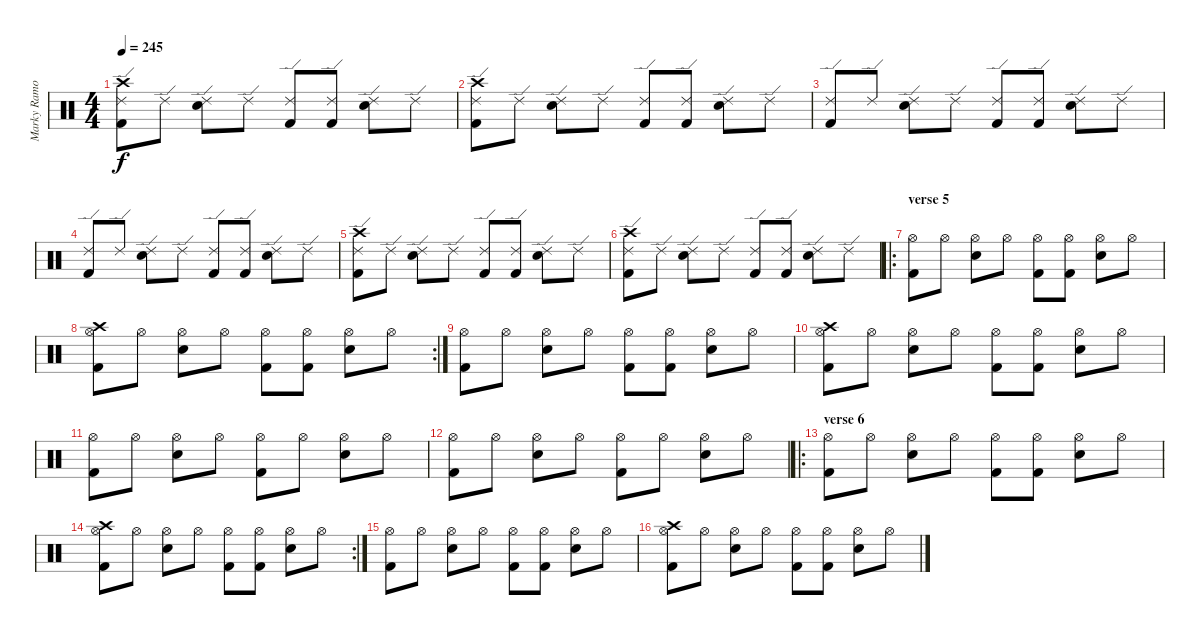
\track ("Marky Ramone" "Marky Ramo") {instrument percussion}
\staff {score}
\articulation defaults
\ts (4 4)
\tempo 245
\clef neutral
\ks c
("Crash high (hit)" "Kick (hit) 2" "Ride (edge) 2").8{dy f} "Ride (edge) 2".8 ("Electric Snare (hit)" "Ride (edge) 2").8 "Ride (edge) 2".8 ("Kick (hit) 2" "Ride (edge) 2").8 ("Kick (hit) 2" "Ride (edge) 2").8 ("Electric Snare (hit)" "Ride (edge) 2").8 "Ride (edge) 2".8 |
("Crash high (hit)" "Kick (hit) 2" "Ride (edge) 2").8 "Ride (edge) 2".8 ("Electric Snare (hit)" "Ride (edge) 2").8 "Ride (edge) 2".8 ("Kick (hit) 2" "Ride (edge) 2").8 ("Kick (hit) 2" "Ride (edge) 2").8 ("Electric Snare (hit)" "Ride (edge) 2").8 "Ride (edge) 2".8 |
("Kick (hit) 2" "Ride (edge) 2").8 "Ride (edge) 2".8 ("Electric Snare (hit)" "Ride (edge) 2").8 "Ride (edge) 2".8 ("Kick (hit) 2" "Ride (edge) 2").8 ("Kick (hit) 2" "Ride (edge) 2").8 ("Electric Snare (hit)" "Ride (edge) 2").8 "Ride (edge) 2".8 |
("Kick (hit) 2" "Ride (edge) 2").8 "Ride (edge) 2".8 ("Electric Snare (hit)" "Ride (edge) 2").8 "Ride (edge) 2".8 ("Kick (hit) 2" "Ride (edge) 2").8 ("Kick (hit) 2" "Ride (edge) 2").8 ("Electric Snare (hit)" "Ride (edge) 2").8 "Ride (edge) 2".8 |
("Crash high (hit)" "Kick (hit) 2" "Ride (edge) 2").8 "Ride (edge) 2".8 ("Electric Snare (hit)" "Ride (edge) 2").8 "Ride (edge) 2".8 ("Kick (hit) 2" "Ride (edge) 2").8 ("Kick (hit) 2" "Ride (edge) 2").8 ("Electric Snare (hit)" "Ride (edge) 2").8 "Ride (edge) 2".8 |
("Crash high (hit)" "Kick (hit) 2" "Ride (edge) 2").8 "Ride (edge) 2".8 ("Electric Snare (hit)" "Ride (edge) 2").8 "Ride (edge) 2".8 ("Kick (hit) 2" "Ride (edge) 2").8 ("Kick (hit) 2" "Ride (edge) 2").8 ("Electric Snare (hit)" "Ride (edge) 2").8 "Ride (edge) 2".8 |
\ro
\section ("" "verse 5")
("Kick (hit) 2" "Hi-Hat (open)").8 "Hi-Hat (open)".8 ("Electric Snare (hit)" "Hi-Hat (open)").8 "Hi-Hat (open)".8 ("Kick (hit) 2" "Hi-Hat (open)").8 ("Kick (hit) 2" "Hi-Hat (open)").8 ("Electric Snare (hit)" "Hi-Hat (open)").8 "Hi-Hat (open)".8 |
\rc 2
("Crash high (hit)" "Kick (hit) 2" "Hi-Hat (open)").8 "Hi-Hat (open)".8 ("Electric Snare (hit)" "Hi-Hat (open)").8 "Hi-Hat (open)".8 ("Kick (hit) 2" "Hi-Hat (open)").8 ("Kick (hit) 2" "Hi-Hat (open)").8 ("Electric Snare (hit)" "Hi-Hat (open)").8 "Hi-Hat (open)".8 |
("Kick (hit) 2" "Hi-Hat (open)").8 "Hi-Hat (open)".8 ("Electric Snare (hit)" "Hi-Hat (open)").8 "Hi-Hat (open)".8 ("Kick (hit) 2" "Hi-Hat (open)").8 ("Kick (hit) 2" "Hi-Hat (open)").8 ("Electric Snare (hit)" "Hi-Hat (open)").8 "Hi-Hat (open)".8 |
("Crash high (hit)" "Kick (hit) 2" "Hi-Hat (open)").8 "Hi-Hat (open)".8 ("Electric Snare (hit)" "Hi-Hat (open)").8 "Hi-Hat (open)".8 ("Kick (hit) 2" "Hi-Hat (open)").8 ("Kick (hit) 2" "Hi-Hat (open)").8 ("Electric Snare (hit)" "Hi-Hat (open)").8 "Hi-Hat (open)".8 |
("Kick (hit) 2" "Hi-Hat (open)").8 "Hi-Hat (open)".8 ("Electric Snare (hit)" "Hi-Hat (open)").8 "Hi-Hat (open)".8 ("Kick (hit) 2" "Hi-Hat (open)").8 "Hi-Hat (open)".8 ("Electric Snare (hit)" "Hi-Hat (open)").8 "Hi-Hat (open)".8 |
("Kick (hit) 2" "Hi-Hat (open)").8 "Hi-Hat (open)".8 ("Electric Snare (hit)" "Hi-Hat (open)").8 "Hi-Hat (open)".8 ("Kick (hit) 2" "Hi-Hat (open)").8 "Hi-Hat (open)".8 ("Electric Snare (hit)" "Hi-Hat (open)").8 "Hi-Hat (open)".8 |
\ro
\section ("" "verse 6")
("Kick (hit) 2" "Hi-Hat (open)").8 "Hi-Hat (open)".8 ("Electric Snare (hit)" "Hi-Hat (open)").8 "Hi-Hat (open)".8 ("Kick (hit) 2" "Hi-Hat (open)").8 ("Kick (hit) 2" "Hi-Hat (open)").8 ("Electric Snare (hit)" "Hi-Hat (open)").8 "Hi-Hat (open)".8 |
\rc 2
("Crash high (hit)" "Kick (hit) 2" "Hi-Hat (open)").8 "Hi-Hat (open)".8 ("Electric Snare (hit)" "Hi-Hat (open)").8 "Hi-Hat (open)".8 ("Kick (hit) 2" "Hi-Hat (open)").8 ("Kick (hit) 2" "Hi-Hat (open)").8 ("Electric Snare (hit)" "Hi-Hat (open)").8 "Hi-Hat (open)".8 |
("Kick (hit) 2" "Hi-Hat (open)").8 "Hi-Hat (open)".8 ("Electric Snare (hit)" "Hi-Hat (open)").8 "Hi-Hat (open)".8 ("Kick (hit) 2" "Hi-Hat (open)").8 ("Kick (hit) 2" "Hi-Hat (open)").8 ("Electric Snare (hit)" "Hi-Hat (open)").8 "Hi-Hat (open)".8 |
("Crash high (hit)" "Kick (hit) 2" "Hi-Hat (open)").8 "Hi-Hat (open)".8 ("Electric Snare (hit)" "Hi-Hat (open)").8 "Hi-Hat (open)".8 ("Kick (hit) 2" "Hi-Hat (open)").8 ("Kick (hit) 2" "Hi-Hat (open)").8 ("Electric Snare (hit)" "Hi-Hat (open)").8 "Hi-Hat (open)".8
